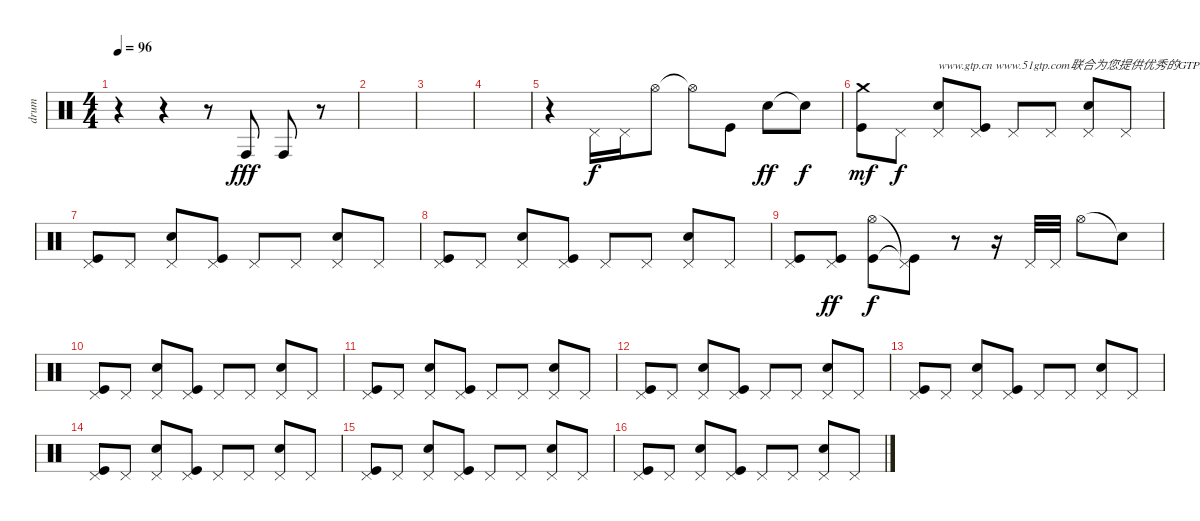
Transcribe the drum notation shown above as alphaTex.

\track ("drum" "drum") {instrument percussion}
\staff {score}
\articulation defaults
\ts (4 4)
\tempo 96
\clef neutral
\ks c
r.4{dy fff} r.4 r.8 "Conga high (hit)".8 "Conga high (hit)".8 r.8 |
|
|
|
r.4 "Pedal Hi-Hat (hit)".16{dy f} "Pedal Hi-Hat (hit)".16 "Hi-Hat (open)".8 "Hi-Hat (open)"{t}.8 "Kick (hit)".8 "Electric Snare (hit)".8{dy ff} "Electric Snare (hit)"{t}.8{dy f} |
("Crash medium (hit)" "Kick (hit)").8{dy mf} "Pedal Hi-Hat (hit)".8{dy f} ("Pedal Hi-Hat (hit)" "Electric Snare (hit)").8{txt "www.gtp.cn www.51gtp.com联合为您提供优秀的GTP!"} ("Pedal Hi-Hat (hit)" "Kick (hit)").8 "Pedal Hi-Hat (hit)".8 "Pedal Hi-Hat (hit)".8 ("Pedal Hi-Hat (hit)" "Electric Snare (hit)").8 "Pedal Hi-Hat (hit)".8 |
("Pedal Hi-Hat (hit)" "Kick (hit)").8 "Pedal Hi-Hat (hit)".8 ("Pedal Hi-Hat (hit)" "Electric Snare (hit)").8 ("Pedal Hi-Hat (hit)" "Kick (hit)").8 "Pedal Hi-Hat (hit)".8 "Pedal Hi-Hat (hit)".8 ("Pedal Hi-Hat (hit)" "Electric Snare (hit)").8 "Pedal Hi-Hat (hit)".8 |
("Pedal Hi-Hat (hit)" "Kick (hit)").8 "Pedal Hi-Hat (hit)".8 ("Pedal Hi-Hat (hit)" "Electric Snare (hit)").8 ("Pedal Hi-Hat (hit)" "Kick (hit)").8 "Pedal Hi-Hat (hit)".8 "Pedal Hi-Hat (hit)".8 ("Pedal Hi-Hat (hit)" "Electric Snare (hit)").8 "Pedal Hi-Hat (hit)".8 |
("Pedal Hi-Hat (hit)" "Kick (hit)").8 ("Pedal Hi-Hat (hit)" "Kick (hit)").8{dy ff} ("Hi-Hat (open)" "Kick (hit)").8{dy f} ("Pedal Hi-Hat (hit)"{t} "Kick (hit)"{t}).8 r.8 r.16 "Pedal Hi-Hat (hit)".32 "Pedal Hi-Hat (hit)".32 "Hi-Hat (open)".8 "Snare (hit)"{t}.8 |
("Pedal Hi-Hat (hit)" "Kick (hit)").8 "Pedal Hi-Hat (hit)".8 ("Pedal Hi-Hat (hit)" "Electric Snare (hit)").8 ("Pedal Hi-Hat (hit)" "Kick (hit)").8 "Pedal Hi-Hat (hit)".8 "Pedal Hi-Hat (hit)".8 ("Pedal Hi-Hat (hit)" "Electric Snare (hit)").8 "Pedal Hi-Hat (hit)".8 |
("Pedal Hi-Hat (hit)" "Kick (hit)").8 "Pedal Hi-Hat (hit)".8 ("Pedal Hi-Hat (hit)" "Electric Snare (hit)").8 ("Pedal Hi-Hat (hit)" "Kick (hit)").8 "Pedal Hi-Hat (hit)".8 "Pedal Hi-Hat (hit)".8 ("Pedal Hi-Hat (hit)" "Electric Snare (hit)").8 "Pedal Hi-Hat (hit)".8 |
("Pedal Hi-Hat (hit)" "Kick (hit)").8 "Pedal Hi-Hat (hit)".8 ("Pedal Hi-Hat (hit)" "Electric Snare (hit)").8 ("Pedal Hi-Hat (hit)" "Kick (hit)").8 "Pedal Hi-Hat (hit)".8 "Pedal Hi-Hat (hit)".8 ("Pedal Hi-Hat (hit)" "Electric Snare (hit)").8 "Pedal Hi-Hat (hit)".8 |
("Pedal Hi-Hat (hit)" "Kick (hit)").8 "Pedal Hi-Hat (hit)".8 ("Pedal Hi-Hat (hit)" "Electric Snare (hit)").8 ("Pedal Hi-Hat (hit)" "Kick (hit)").8 "Pedal Hi-Hat (hit)".8 "Pedal Hi-Hat (hit)".8 ("Pedal Hi-Hat (hit)" "Electric Snare (hit)").8 "Pedal Hi-Hat (hit)".8 |
("Pedal Hi-Hat (hit)" "Kick (hit)").8 "Pedal Hi-Hat (hit)".8 ("Pedal Hi-Hat (hit)" "Electric Snare (hit)").8 ("Pedal Hi-Hat (hit)" "Kick (hit)").8 "Pedal Hi-Hat (hit)".8 "Pedal Hi-Hat (hit)".8 ("Pedal Hi-Hat (hit)" "Electric Snare (hit)").8 "Pedal Hi-Hat (hit)".8 |
("Pedal Hi-Hat (hit)" "Kick (hit)").8 "Pedal Hi-Hat (hit)".8 ("Pedal Hi-Hat (hit)" "Electric Snare (hit)").8 ("Pedal Hi-Hat (hit)" "Kick (hit)").8 "Pedal Hi-Hat (hit)".8 "Pedal Hi-Hat (hit)".8 ("Pedal Hi-Hat (hit)" "Electric Snare (hit)").8 "Pedal Hi-Hat (hit)".8 |
("Pedal Hi-Hat (hit)" "Kick (hit)").8 "Pedal Hi-Hat (hit)".8 ("Pedal Hi-Hat (hit)" "Electric Snare (hit)").8 ("Pedal Hi-Hat (hit)" "Kick (hit)").8 "Pedal Hi-Hat (hit)".8 "Pedal Hi-Hat (hit)".8 ("Pedal Hi-Hat (hit)" "Electric Snare (hit)").8 "Pedal Hi-Hat (hit)".8
